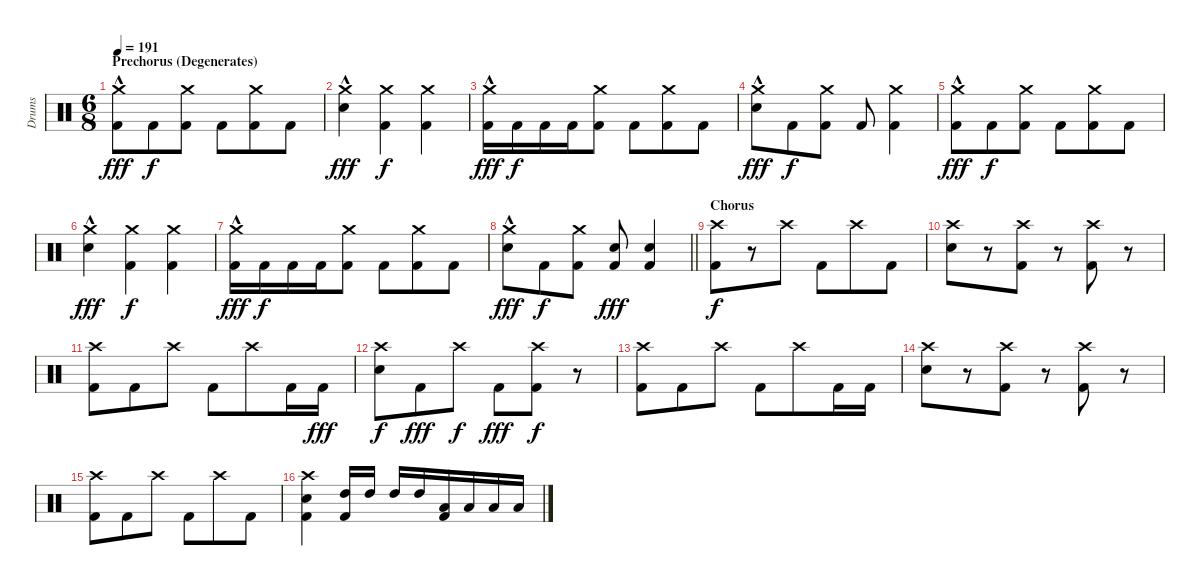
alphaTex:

\track ("Drums" "Drums") {instrument percussion}
\staff {score}
\articulation defaults
\ts (6 8)
\section ("" "Prechorus (Degenerates)")
\tempo 191
\clef neutral
\ks c
("Crash medium (hit)"{hac} "Kick (hit) 2").8{dy fff} "Kick (hit) 2".8{dy f} ("Crash medium (hit)" "Kick (hit) 2").8 "Kick (hit) 2".8 ("Crash medium (hit)" "Kick (hit) 2").8 "Kick (hit) 2".8 |
("Crash medium (hit)"{hac} "Snare (hit) 2").4{dy fff} ("Crash medium (hit)" "Kick (hit) 2").4{dy f} ("Crash medium (hit)" "Kick (hit) 2").4 |
("Crash medium (hit)"{hac} "Kick (hit) 2").16{dy fff} "Kick (hit) 2".16{dy f} "Kick (hit) 2".16 "Kick (hit) 2".16 ("Crash medium (hit)" "Kick (hit) 2").8 "Kick (hit) 2".8 ("Crash medium (hit)" "Kick (hit) 2").8 "Kick (hit) 2".8 |
("Crash medium (hit)"{hac} "Snare (hit) 2").8{dy fff} "Kick (hit) 2".8{dy f} ("Crash medium (hit)" "Kick (hit) 2").8 "Kick (hit) 2".8 ("Crash medium (hit)" "Kick (hit) 2").4 |
("Crash medium (hit)"{hac} "Kick (hit) 2").8{dy fff} "Kick (hit) 2".8{dy f} ("Crash medium (hit)" "Kick (hit) 2").8 "Kick (hit) 2".8 ("Crash medium (hit)" "Kick (hit) 2").8 "Kick (hit) 2".8 |
("Crash medium (hit)"{hac} "Snare (hit) 2").4{dy fff} ("Crash medium (hit)" "Kick (hit) 2").4{dy f} ("Crash medium (hit)" "Kick (hit) 2").4 |
("Crash medium (hit)"{hac} "Kick (hit) 2").16{dy fff} "Kick (hit) 2".16{dy f} "Kick (hit) 2".16 "Kick (hit) 2".16 ("Crash medium (hit)" "Kick (hit) 2").8 "Kick (hit) 2".8 ("Crash medium (hit)" "Kick (hit) 2").8 "Kick (hit) 2".8 |
\barLineRight lightlight
("Crash medium (hit)"{hac} "Snare (hit) 2").8{dy fff} "Kick (hit) 2".8{dy f} ("Crash medium (hit)" "Kick (hit) 2").8 ("Snare (hit) 2" "Kick (hit) 2").8{dy fff} ("Snare (hit) 2" "Kick (hit) 2").4 |
\section ("" "Chorus")
("Crash high (hit)" "Kick (hit) 2").8{dy f} r.8 "Crash high (hit)".8 "Kick (hit) 2".8 "Crash high (hit)".8 "Kick (hit) 2".8 |
("Crash high (hit)" "Snare (hit) 2").8 r.8 ("Crash high (hit)" "Kick (hit) 2").8 r.8 ("Crash high (hit)" "Kick (hit) 2").8 r.8 |
("Crash high (hit)" "Kick (hit) 2").8 "Kick (hit) 2".8 "Crash high (hit)".8 "Kick (hit) 2".8 "Crash high (hit)".8 "Kick (hit) 2".16 "Kick (hit) 2".16{dy fff} |
("Crash high (hit)" "Snare (hit) 2").8{dy f} "Kick (hit) 2".8{dy fff} "Crash high (hit)".8{dy f} "Kick (hit) 2".8{dy fff} ("Crash high (hit)" "Kick (hit) 2").8{dy f} r.8 |
("Crash high (hit)" "Kick (hit) 2").8 "Kick (hit) 2".8 "Crash high (hit)".8 "Kick (hit) 2".8 "Crash high (hit)".8 "Kick (hit) 2".16 "Kick (hit) 2".16 |
("Crash high (hit)" "Snare (hit) 2").8 r.8 ("Crash high (hit)" "Kick (hit) 2").8 r.8 ("Crash high (hit)" "Kick (hit) 2").8 r.8 |
("Crash high (hit)" "Kick (hit) 2").8 "Kick (hit) 2".8 "Crash high (hit)".8 "Kick (hit) 2".8 "Crash high (hit)".8 "Kick (hit) 2".8 |
("Crash high (hit)" "Snare (hit) 2" "Kick (hit) 2").4 ("High Tom (hit)" "Kick (hit) 2").16 "High Tom (hit)".16 "High Tom (hit)".16 "High Tom (hit)".16 ("Low Tom (hit)" "Kick (hit) 2").16 "Low Tom (hit)".16 "Low Tom (hit)".16 "Low Tom (hit)".16
